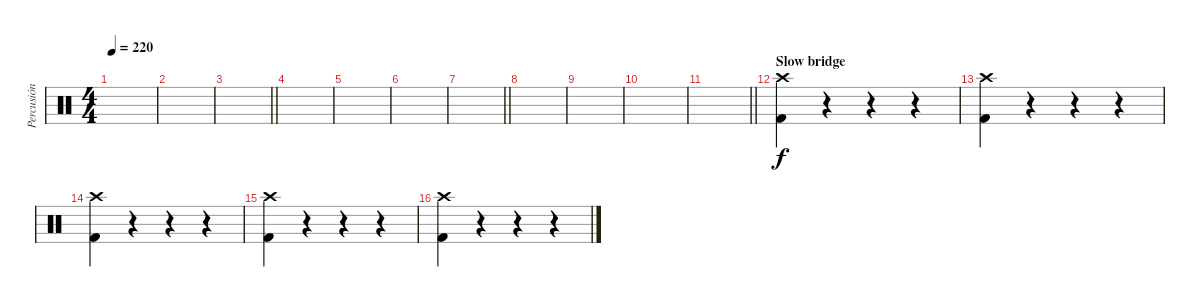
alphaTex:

\track ("Percusión" "Percusión") {instrument percussion}
\staff {score}
\articulation defaults
\ts (4 4)
\tempo 220
\clef neutral
\ks c
|
|
\barLineRight lightlight
|
|
|
|
\barLineRight lightlight
|
|
|
|
\barLineRight lightlight
|
\section ("" "Slow bridge")
("Crash high (hit)" "Kick (hit) 2").4 r.4 r.4 r.4 |
("Crash high (hit)" "Kick (hit) 2").4 r.4 r.4 r.4 |
("Crash high (hit)" "Kick (hit) 2").4 r.4 r.4 r.4 |
("Crash high (hit)" "Kick (hit) 2").4 r.4 r.4 r.4 |
("Crash high (hit)" "Kick (hit) 2").4 r.4 r.4 r.4
